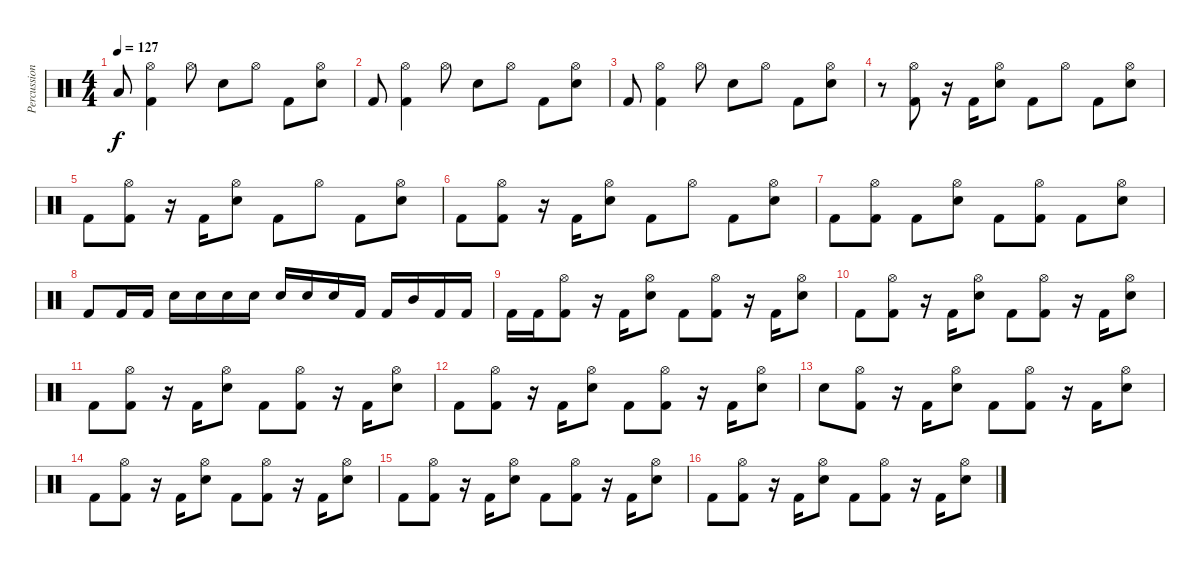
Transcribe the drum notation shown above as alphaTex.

\track ("Percussion" "Percussion") {instrument percussion}
\staff {score}
\articulation defaults
\ts (4 4)
\tempo 127
\clef neutral
\ks c "Low Tom (hit)".8{dy f}
("Hi-Hat (open)" "Kick (hit) 2").4 "Hi-Hat (open)".8 "Electric Snare (hit)".8 "Hi-Hat (open)".8 "Kick (hit) 2".8 ("Hi-Hat (open)" "Electric Snare (hit)").8 |
"Kick (hit) 2".8 ("Hi-Hat (open)" "Kick (hit) 2").4 "Hi-Hat (open)".8 "Electric Snare (hit)".8 "Hi-Hat (open)".8 "Kick (hit) 2".8 ("Hi-Hat (open)" "Electric Snare (hit)").8 |
"Kick (hit) 2".8 ("Hi-Hat (open)" "Kick (hit) 2").4 "Hi-Hat (open)".8 "Electric Snare (hit)".8 "Hi-Hat (open)".8 "Kick (hit) 2".8 ("Hi-Hat (open)" "Electric Snare (hit)").8 |
r.8 ("Hi-Hat (open)" "Kick (hit) 2").8 r.16 "Kick (hit) 2".16 ("Hi-Hat (open)" "Electric Snare (hit)").8 "Kick (hit) 2".8 "Hi-Hat (open)".8 "Kick (hit) 2".8 ("Hi-Hat (open)" "Electric Snare (hit)").8 |
"Kick (hit) 2".8 ("Hi-Hat (open)" "Kick (hit) 2").8 r.16 "Kick (hit) 2".16 ("Hi-Hat (open)" "Electric Snare (hit)").8 "Kick (hit) 2".8 "Hi-Hat (open)".8 "Kick (hit) 2".8 ("Hi-Hat (open)" "Electric Snare (hit)").8 |
"Kick (hit) 2".8 ("Hi-Hat (open)" "Kick (hit) 2").8 r.16 "Kick (hit) 2".16 ("Hi-Hat (open)" "Electric Snare (hit)").8 "Kick (hit) 2".8 "Hi-Hat (open)".8 "Kick (hit) 2".8 ("Hi-Hat (open)" "Electric Snare (hit)").8 |
"Kick (hit) 2".8 ("Hi-Hat (open)" "Kick (hit) 2").8 "Kick (hit) 2".8 ("Hi-Hat (open)" "Electric Snare (hit)").8 "Kick (hit) 2".8 ("Hi-Hat (open)" "Kick (hit) 2").8 "Kick (hit) 2".8 ("Hi-Hat (open)" "Electric Snare (hit)").8 |
"Kick (hit) 2".8 "Kick (hit) 2".16 "Kick (hit) 2".16 "Electric Snare (hit)".16 "Electric Snare (hit)".16 "Electric Snare (hit)".16 "Electric Snare (hit)".16 "Electric Snare (hit)".16 "Electric Snare (hit)".16 "Electric Snare (hit)".16 "Kick (hit) 2".16 "Kick (hit) 2".16 "Mid Tom (hit)".16 "Kick (hit) 2".16 "Kick (hit) 2".16 |
"Kick (hit) 2".16 "Kick (hit) 2".16 ("Hi-Hat (open)" "Kick (hit) 2").8 r.16 "Kick (hit) 2".16 ("Hi-Hat (open)" "Electric Snare (hit)").8 "Kick (hit) 2".8 ("Hi-Hat (open)" "Kick (hit) 2").8 r.16 "Kick (hit) 2".16 ("Hi-Hat (open)" "Electric Snare (hit)").8 |
"Kick (hit) 2".8 ("Hi-Hat (open)" "Kick (hit) 2").8 r.16 "Kick (hit) 2".16 ("Hi-Hat (open)" "Electric Snare (hit)").8 "Kick (hit) 2".8 ("Hi-Hat (open)" "Kick (hit) 2").8 r.16 "Kick (hit) 2".16 ("Hi-Hat (open)" "Electric Snare (hit)").8 |
"Kick (hit) 2".8 ("Hi-Hat (open)" "Kick (hit) 2").8 r.16 "Kick (hit) 2".16 ("Hi-Hat (open)" "Electric Snare (hit)").8 "Kick (hit) 2".8 ("Hi-Hat (open)" "Kick (hit) 2").8 r.16 "Kick (hit) 2".16 ("Hi-Hat (open)" "Electric Snare (hit)").8 |
"Kick (hit) 2".8 ("Hi-Hat (open)" "Kick (hit) 2").8 r.16 "Kick (hit) 2".16 ("Hi-Hat (open)" "Electric Snare (hit)").8 "Kick (hit) 2".8 ("Hi-Hat (open)" "Kick (hit) 2").8 r.16 "Kick (hit) 2".16 ("Hi-Hat (open)" "Electric Snare (hit)").8 |
"Electric Snare (hit)".8 ("Hi-Hat (open)" "Kick (hit) 2").8 r.16 "Kick (hit) 2".16 ("Hi-Hat (open)" "Electric Snare (hit)").8 "Kick (hit) 2".8 ("Hi-Hat (open)" "Kick (hit) 2").8 r.16 "Kick (hit) 2".16 ("Hi-Hat (open)" "Electric Snare (hit)").8 |
"Kick (hit) 2".8 ("Hi-Hat (open)" "Kick (hit) 2").8 r.16 "Kick (hit) 2".16 ("Hi-Hat (open)" "Electric Snare (hit)").8 "Kick (hit) 2".8 ("Hi-Hat (open)" "Kick (hit) 2").8 r.16 "Kick (hit) 2".16 ("Hi-Hat (open)" "Electric Snare (hit)").8 |
"Kick (hit) 2".8 ("Hi-Hat (open)" "Kick (hit) 2").8 r.16 "Kick (hit) 2".16 ("Hi-Hat (open)" "Electric Snare (hit)").8 "Kick (hit) 2".8 ("Hi-Hat (open)" "Kick (hit) 2").8 r.16 "Kick (hit) 2".16 ("Hi-Hat (open)" "Electric Snare (hit)").8 |
"Kick (hit) 2".8 ("Hi-Hat (open)" "Kick (hit) 2").8 r.16 "Kick (hit) 2".16 ("Hi-Hat (open)" "Electric Snare (hit)").8 "Kick (hit) 2".8 ("Hi-Hat (open)" "Kick (hit) 2").8 r.16 "Kick (hit) 2".16 ("Hi-Hat (open)" "Electric Snare (hit)").8
